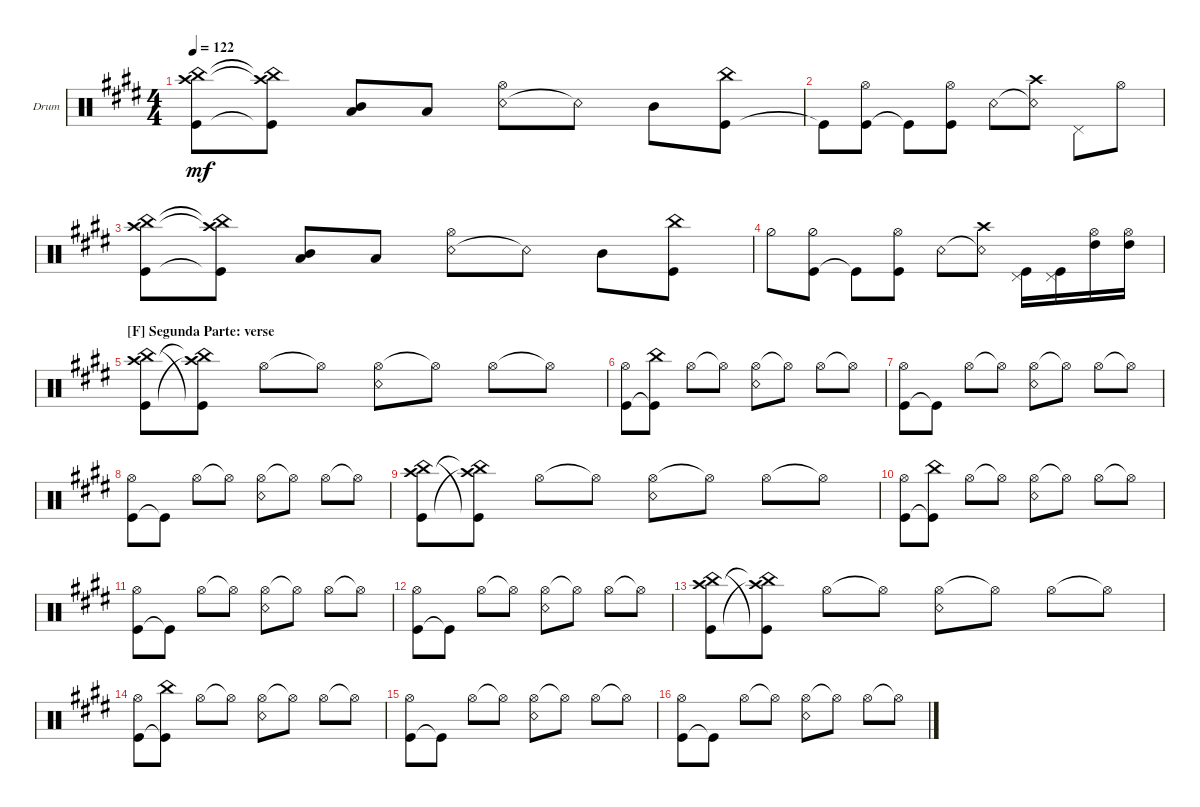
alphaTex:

\defaultSystemsLayout 4
\bracketExtendMode groupsimilarinstruments
\firstSystemTrackNameOrientation horizontal
\otherSystemsTrackNameOrientation horizontal
\track ("Bateria" "Drum") {multiBarRest instrument percussion}
\staff {score}
\articulation defaults
\ts (4 4)
\tempo 122
\clef neutral
\ks e
("Kick (hit)" "China (hit)" "Crash high (hit)").8{dy mf} ("Kick (hit)"{t} "China (hit)"{t} "Crash high (hit)"{t}).8 ("Low Tom (hit)" "Mid Tom (hit)").8 "Low Tom (hit)".8 ("Snare (rim shot)" "Hi-Hat (open)").8 "Snare (rim shot)"{t}.8 "Mid Tom (hit)".8 ("Kick (hit)" "China (hit)").8 |
"Kick (hit)"{t}.8 ("Kick (hit)" "Hi-Hat (open)").8 "Kick (hit)"{t}.8 ("Kick (hit)" "Hi-Hat (open)").8 "Snare (rim shot)".8 ("Snare (rim shot)"{t} "Crash high (hit)").8 "Pedal Hi-Hat (hit)".8 "Hi-Hat (open)".8 |
("Kick (hit)" "China (hit)" "Crash high (hit)").8 ("Kick (hit)"{t} "China (hit)"{t} "Crash high (hit)"{t}).8 ("Low Tom (hit)" "Mid Tom (hit)").8 "Low Tom (hit)".8 ("Snare (rim shot)" "Hi-Hat (open)").8 "Snare (rim shot)"{t}.8 "Mid Tom (hit)".8 ("Kick (hit)" "China (hit)").8 |
"Hi-Hat (half)".8 ("Kick (hit)" "Hi-Hat (half)").8 "Kick (hit)"{t}.8 ("Kick (hit)" "Hi-Hat (open)").8 "Snare (rim shot)".8 ("Snare (rim shot)"{t} "Crash high (hit)").8 ("Pedal Hi-Hat (hit)" "Kick (hit)").16 ("Pedal Hi-Hat (hit)" "Kick (hit)").16 ("Hi-Hat (open)" "High Tom (hit)").16 ("Hi-Hat (open)" "High Tom (hit)").16 |
\section ("F" "Segunda Parte: verse")
("China (hit)" "Crash high (hit)" "Kick (hit)").8 ("Kick (hit)"{t} "China (hit)"{t} "Crash high (hit)"{t}).8 "Hi-Hat (open)".8 "Hi-Hat (open)"{t}.8 ("Hi-Hat (open)" "Snare (rim shot)").8 "Hi-Hat (open)"{t}.8 "Hi-Hat (open)".8 "Hi-Hat (open)"{t}.8 |
("Kick (hit)" "Hi-Hat (open)").8 ("Kick (hit)"{t} "China (hit)").8 "Hi-Hat (open)".8 "Hi-Hat (open)"{t}.8 ("Hi-Hat (open)" "Snare (rim shot)").8 "Hi-Hat (open)"{t}.8 "Hi-Hat (open)".8 "Hi-Hat (open)"{t}.8 |
("Kick (hit)" "Hi-Hat (open)").8 "Kick (hit)"{t}.8 "Hi-Hat (open)".8 "Hi-Hat (open)"{t}.8 ("Hi-Hat (open)" "Snare (rim shot)").8 "Hi-Hat (open)"{t}.8 "Hi-Hat (open)".8 "Hi-Hat (open)"{t}.8 |
("Kick (hit)" "Hi-Hat (open)").8 "Kick (hit)"{t}.8 "Hi-Hat (open)".8 "Hi-Hat (open)"{t}.8 ("Hi-Hat (open)" "Snare (rim shot)").8 "Hi-Hat (open)"{t}.8 "Hi-Hat (open)".8 "Hi-Hat (open)"{t}.8 |
("China (hit)" "Crash high (hit)" "Kick (hit)").8 ("Kick (hit)"{t} "China (hit)"{t} "Crash high (hit)"{t}).8 "Hi-Hat (open)".8 "Hi-Hat (open)"{t}.8 ("Hi-Hat (open)" "Snare (rim shot)").8 "Hi-Hat (open)"{t}.8 "Hi-Hat (open)".8 "Hi-Hat (open)"{t}.8 |
("Kick (hit)" "Hi-Hat (open)").8 ("Kick (hit)"{t} "China (hit)").8 "Hi-Hat (open)".8 "Hi-Hat (open)"{t}.8 ("Hi-Hat (open)" "Snare (rim shot)").8 "Hi-Hat (open)"{t}.8 "Hi-Hat (open)".8 "Hi-Hat (open)"{t}.8 |
("Kick (hit)" "Hi-Hat (open)").8 "Kick (hit)"{t}.8 "Hi-Hat (open)".8 "Hi-Hat (open)"{t}.8 ("Hi-Hat (open)" "Snare (rim shot)").8 "Hi-Hat (open)"{t}.8 "Hi-Hat (open)".8 "Hi-Hat (open)"{t}.8 |
("Kick (hit)" "Hi-Hat (open)").8 "Kick (hit)"{t}.8 "Hi-Hat (open)".8 "Hi-Hat (open)"{t}.8 ("Hi-Hat (open)" "Snare (rim shot)").8 "Hi-Hat (open)"{t}.8 "Hi-Hat (open)".8 "Hi-Hat (open)"{t}.8 |
("China (hit)" "Crash high (hit)" "Kick (hit)").8 ("Kick (hit)"{t} "China (hit)"{t} "Crash high (hit)"{t}).8 "Hi-Hat (open)".8 "Hi-Hat (open)"{t}.8 ("Hi-Hat (open)" "Snare (rim shot)").8 "Hi-Hat (open)"{t}.8 "Hi-Hat (open)".8 "Hi-Hat (open)"{t}.8 |
("Kick (hit)" "Hi-Hat (open)").8 ("Kick (hit)"{t} "China (hit)").8 "Hi-Hat (open)".8 "Hi-Hat (open)"{t}.8 ("Hi-Hat (open)" "Snare (rim shot)").8 "Hi-Hat (open)"{t}.8 "Hi-Hat (open)".8 "Hi-Hat (open)"{t}.8 |
("Kick (hit)" "Hi-Hat (open)").8 "Kick (hit)"{t}.8 "Hi-Hat (open)".8 "Hi-Hat (open)"{t}.8 ("Hi-Hat (open)" "Snare (rim shot)").8 "Hi-Hat (open)"{t}.8 "Hi-Hat (open)".8 "Hi-Hat (open)"{t}.8 |
("Kick (hit)" "Hi-Hat (open)").8 "Kick (hit)"{t}.8 "Hi-Hat (open)".8 "Hi-Hat (open)"{t}.8 ("Hi-Hat (open)" "Snare (rim shot)").8 "Hi-Hat (open)"{t}.8 "Hi-Hat (open)".8 "Hi-Hat (open)"{t}.8
